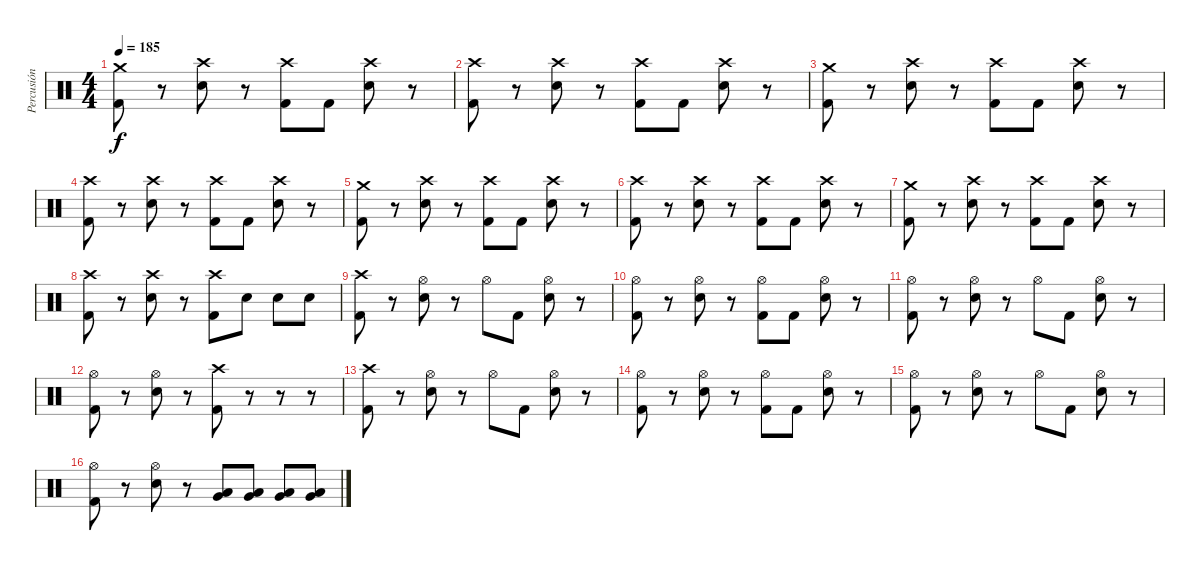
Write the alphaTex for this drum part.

\track ("Percusión" "Percusión") {instrument percussion}
\staff {score}
\articulation defaults
\ts (4 4)
\tempo 185
\clef neutral
\ks c
("Crash medium (hit)" "Kick (hit) 2").8{dy f} r.8 ("Crash high (hit)" "Electric Snare (hit)").8 r.8 ("Crash high (hit)" "Kick (hit) 2").8 "Kick (hit) 2".8 ("Crash high (hit)" "Electric Snare (hit)").8 r.8 |
("Crash high (hit)" "Kick (hit) 2").8 r.8 ("Crash high (hit)" "Electric Snare (hit)").8 r.8 ("Crash high (hit)" "Kick (hit) 2").8 "Kick (hit) 2".8 ("Crash high (hit)" "Electric Snare (hit)").8 r.8 |
("Crash medium (hit)" "Kick (hit) 2").8 r.8 ("Crash high (hit)" "Electric Snare (hit)").8 r.8 ("Crash high (hit)" "Kick (hit) 2").8 "Kick (hit) 2".8 ("Crash high (hit)" "Electric Snare (hit)").8 r.8 |
("Crash high (hit)" "Kick (hit) 2").8 r.8 ("Crash high (hit)" "Electric Snare (hit)").8 r.8 ("Crash high (hit)" "Kick (hit) 2").8 "Kick (hit) 2".8 ("Crash high (hit)" "Electric Snare (hit)").8 r.8 |
("Crash medium (hit)" "Kick (hit) 2").8 r.8 ("Crash high (hit)" "Electric Snare (hit)").8 r.8 ("Crash high (hit)" "Kick (hit) 2").8 "Kick (hit) 2".8 ("Crash high (hit)" "Electric Snare (hit)").8 r.8 |
("Crash high (hit)" "Kick (hit) 2").8 r.8 ("Crash high (hit)" "Electric Snare (hit)").8 r.8 ("Crash high (hit)" "Kick (hit) 2").8 "Kick (hit) 2".8 ("Crash high (hit)" "Electric Snare (hit)").8 r.8 |
("Crash medium (hit)" "Kick (hit) 2").8 r.8 ("Crash high (hit)" "Electric Snare (hit)").8 r.8 ("Crash high (hit)" "Kick (hit) 2").8 "Kick (hit) 2".8 ("Crash high (hit)" "Electric Snare (hit)").8 r.8 |
("Crash high (hit)" "Kick (hit) 2").8 r.8 ("Crash high (hit)" "Electric Snare (hit)").8 r.8 ("Crash high (hit)" "Kick (hit) 2").8 "Electric Snare (hit)".8 "Electric Snare (hit)".8 "Electric Snare (hit)".8 |
("Crash high (hit)" "Kick (hit) 2").8 r.8 ("Hi-Hat (open)" "Electric Snare (hit)").8 r.8 "Hi-Hat (open)".8 "Kick (hit) 2".8 ("Hi-Hat (open)" "Electric Snare (hit)").8 r.8 |
("Hi-Hat (open)" "Kick (hit) 2").8 r.8 ("Hi-Hat (open)" "Electric Snare (hit)").8 r.8 ("Hi-Hat (open)" "Kick (hit) 2").8 "Kick (hit) 2".8 ("Hi-Hat (open)" "Electric Snare (hit)").8 r.8 |
("Hi-Hat (open)" "Kick (hit) 2").8 r.8 ("Hi-Hat (open)" "Electric Snare (hit)").8 r.8 "Hi-Hat (open)".8 "Kick (hit) 2".8 ("Hi-Hat (open)" "Electric Snare (hit)").8 r.8 |
("Hi-Hat (open)" "Kick (hit) 2").8 r.8 ("Hi-Hat (open)" "Electric Snare (hit)").8 r.8 ("Crash high (hit)" "Kick (hit) 2").8 r.8 r.8 r.8 |
("Crash high (hit)" "Kick (hit) 2").8 r.8 ("Hi-Hat (open)" "Electric Snare (hit)").8 r.8 "Hi-Hat (open)".8 "Kick (hit) 2".8 ("Hi-Hat (open)" "Electric Snare (hit)").8 r.8 |
("Hi-Hat (open)" "Kick (hit) 2").8 r.8 ("Hi-Hat (open)" "Electric Snare (hit)").8 r.8 ("Hi-Hat (open)" "Kick (hit) 2").8 "Kick (hit) 2".8 ("Hi-Hat (open)" "Electric Snare (hit)").8 r.8 |
("Hi-Hat (open)" "Kick (hit) 2").8 r.8 ("Hi-Hat (open)" "Electric Snare (hit)").8 r.8 "Hi-Hat (open)".8 "Kick (hit) 2".8 ("Hi-Hat (open)" "Electric Snare (hit)").8 r.8 |
("Hi-Hat (open)" "Kick (hit) 2").8 r.8 ("Hi-Hat (open)" "Electric Snare (hit)").8 r.8 ("Very Low Tom (hit)" "Low Tom (hit)").8 ("Very Low Tom (hit)" "Low Tom (hit)").8 ("Very Low Tom (hit)" "Low Tom (hit)").8 ("Very Low Tom (hit)" "Low Tom (hit)").8
